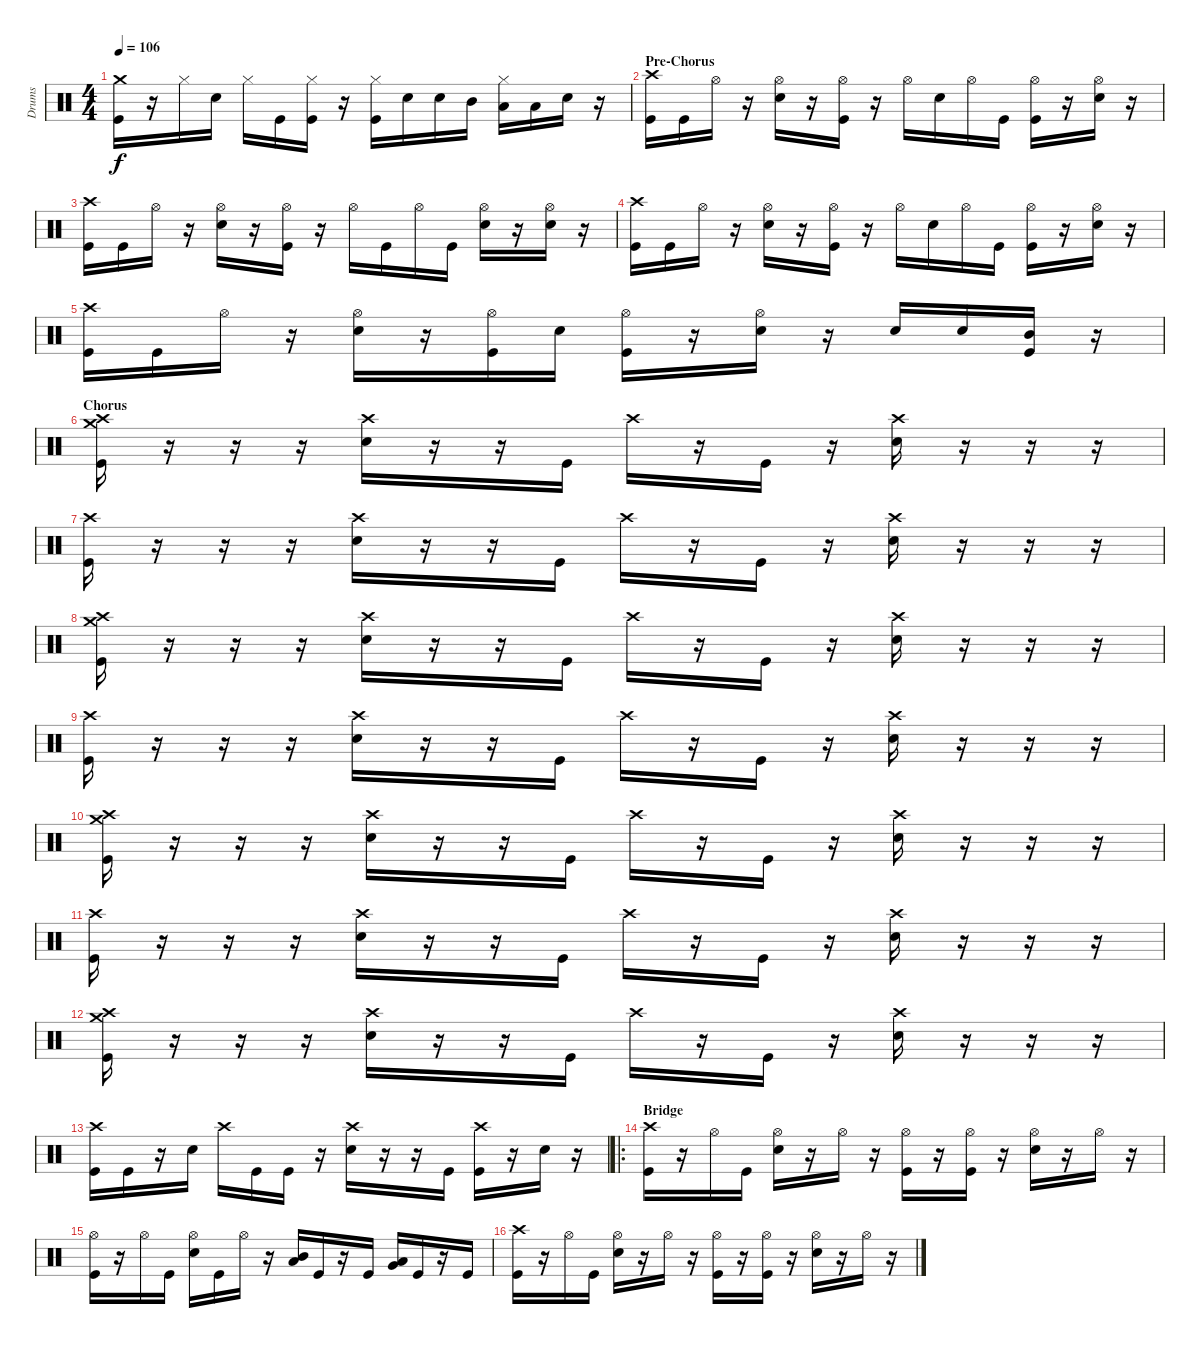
\track ("Drums" "Drums") {instrument percussion}
\staff {score}
\articulation defaults
\ts (4 4)
\tempo 106
\clef neutral
\ks c
("Crash medium (hit)" "Kick (hit)").16{dy f} r.16 "Hi-Hat (closed)".16 "Electric Snare (hit)".16 "Hi-Hat (closed)".16 "Kick (hit)".16 ("Hi-Hat (closed)" "Kick (hit)").16 r.16 ("Hi-Hat (closed)" "Kick (hit)").16 "Electric Snare (hit)".16 "Electric Snare (hit)".16 "Mid Tom (hit)".16 ("Low Tom (hit)" "Hi-Hat (closed)").16 "Low Tom (hit)".16 "Electric Snare (hit)".16 r.16 |
\section ("" "Pre-Chorus")
("Crash high (hit)" "Kick (hit)").16 "Kick (hit)".16 "Hi-Hat (open)".16 r.16 ("Hi-Hat (open)" "Electric Snare (hit)").16 r.16 ("Hi-Hat (open)" "Kick (hit)").16 r.16 "Hi-Hat (open)".16 "Electric Snare (hit)".16 "Hi-Hat (open)".16 "Kick (hit)".16 ("Hi-Hat (open)" "Kick (hit)").16 r.16 ("Hi-Hat (open)" "Electric Snare (hit)").16 r.16 |
("Crash high (hit)" "Kick (hit)").16 "Kick (hit)".16 "Hi-Hat (open)".16 r.16 ("Hi-Hat (open)" "Electric Snare (hit)").16 r.16 ("Hi-Hat (open)" "Kick (hit)").16 r.16 "Hi-Hat (open)".16 "Kick (hit)".16 "Hi-Hat (open)".16 "Kick (hit)".16 ("Hi-Hat (open)" "Electric Snare (hit)").16 r.16 ("Hi-Hat (open)" "Electric Snare (hit)").16 r.16 |
("Crash high (hit)" "Kick (hit)").16 "Kick (hit)".16 "Hi-Hat (open)".16 r.16 ("Hi-Hat (open)" "Electric Snare (hit)").16 r.16 ("Hi-Hat (open)" "Kick (hit)").16 r.16 "Hi-Hat (open)".16 "Electric Snare (hit)".16 "Hi-Hat (open)".16 "Kick (hit)".16 ("Hi-Hat (open)" "Kick (hit)").16 r.16 ("Hi-Hat (open)" "Electric Snare (hit)").16 r.16 |
("Crash high (hit)" "Kick (hit)").16 "Kick (hit)".16 "Hi-Hat (open)".16 r.16 ("Hi-Hat (open)" "Electric Snare (hit)").16 r.16 ("Hi-Hat (open)" "Kick (hit)").16 "Electric Snare (hit)".16 ("Hi-Hat (open)" "Kick (hit)").16 r.16 ("Hi-Hat (open)" "Electric Snare (hit)").16 r.16 "Electric Snare (hit)".16 "Electric Snare (hit)".16 ("Mid Tom (hit)" "Kick (hit)").16 r.16 |
\section ("" "Chorus")
("Crash high (hit)" "Crash medium (hit)" "Kick (hit)").16 r.16 r.16 r.16 ("Crash high (hit)" "Electric Snare (hit)").16 r.16 r.16 "Kick (hit)".16 "Crash high (hit)".16 r.16 "Kick (hit)".16 r.16 ("Crash high (hit)" "Electric Snare (hit)").16 r.16 r.16 r.16 |
("Crash high (hit)" "Kick (hit)").16 r.16 r.16 r.16 ("Crash high (hit)" "Electric Snare (hit)").16 r.16 r.16 "Kick (hit)".16 "Crash high (hit)".16 r.16 "Kick (hit)".16 r.16 ("Crash high (hit)" "Electric Snare (hit)").16 r.16 r.16 r.16 |
("Crash high (hit)" "Crash medium (hit)" "Kick (hit)").16 r.16 r.16 r.16 ("Crash high (hit)" "Electric Snare (hit)").16 r.16 r.16 "Kick (hit)".16 "Crash high (hit)".16 r.16 "Kick (hit)".16 r.16 ("Crash high (hit)" "Electric Snare (hit)").16 r.16 r.16 r.16 |
("Crash high (hit)" "Kick (hit)").16 r.16 r.16 r.16 ("Crash high (hit)" "Electric Snare (hit)").16 r.16 r.16 "Kick (hit)".16 "Crash high (hit)".16 r.16 "Kick (hit)".16 r.16 ("Crash high (hit)" "Electric Snare (hit)").16 r.16 r.16 r.16 |
("Crash high (hit)" "Crash medium (hit)" "Kick (hit)").16 r.16 r.16 r.16 ("Crash high (hit)" "Electric Snare (hit)").16 r.16 r.16 "Kick (hit)".16 "Crash high (hit)".16 r.16 "Kick (hit)".16 r.16 ("Crash high (hit)" "Electric Snare (hit)").16 r.16 r.16 r.16 |
("Crash high (hit)" "Kick (hit)").16 r.16 r.16 r.16 ("Crash high (hit)" "Electric Snare (hit)").16 r.16 r.16 "Kick (hit)".16 "Crash high (hit)".16 r.16 "Kick (hit)".16 r.16 ("Crash high (hit)" "Electric Snare (hit)").16 r.16 r.16 r.16 |
("Crash high (hit)" "Crash medium (hit)" "Kick (hit)").16 r.16 r.16 r.16 ("Crash high (hit)" "Electric Snare (hit)").16 r.16 r.16 "Kick (hit)".16 "Crash high (hit)".16 r.16 "Kick (hit)".16 r.16 ("Crash high (hit)" "Electric Snare (hit)").16 r.16 r.16 r.16 |
("Crash high (hit)" "Kick (hit)").16 "Kick (hit)".16 r.16 "Electric Snare (hit)".16 "Crash high (hit)".16 "Kick (hit)".16 "Kick (hit)".16 r.16 ("Crash high (hit)" "Electric Snare (hit)").16 r.16 r.16 "Kick (hit)".16 ("Crash high (hit)" "Kick (hit)").16 r.16 "Electric Snare (hit)".16 r.16 |
\ro
\section ("" "Bridge")
("Crash high (hit)" "Kick (hit)").16 r.16 "Hi-Hat (open)".16 "Kick (hit)".16 ("Hi-Hat (open)" "Electric Snare (hit)").16 r.16 "Hi-Hat (open)".16 r.16 ("Hi-Hat (open)" "Kick (hit)").16 r.16 ("Hi-Hat (open)" "Kick (hit)").16 r.16 ("Hi-Hat (open)" "Electric Snare (hit)").16 r.16 "Hi-Hat (open)".16 r.16 |
("Hi-Hat (open)" "Kick (hit)").16 r.16 "Hi-Hat (open)".16 "Kick (hit)".16 ("Hi-Hat (open)" "Electric Snare (hit)").16 "Kick (hit)".16 "Hi-Hat (open)".16 r.16 ("Mid Tom (hit)" "Low Tom (hit)").16 "Kick (hit)".16 r.16 "Kick (hit)".16 ("Low Tom (hit)" "Very Low Tom (hit)").16 "Kick (hit)".16 r.16 "Kick (hit)".16 |
("Crash high (hit)" "Kick (hit)").16 r.16 "Hi-Hat (open)".16 "Kick (hit)".16 ("Hi-Hat (open)" "Electric Snare (hit)").16 r.16 "Hi-Hat (open)".16 r.16 ("Hi-Hat (open)" "Kick (hit)").16 r.16 ("Hi-Hat (open)" "Kick (hit)").16 r.16 ("Hi-Hat (open)" "Electric Snare (hit)").16 r.16 "Hi-Hat (open)".16 r.16
